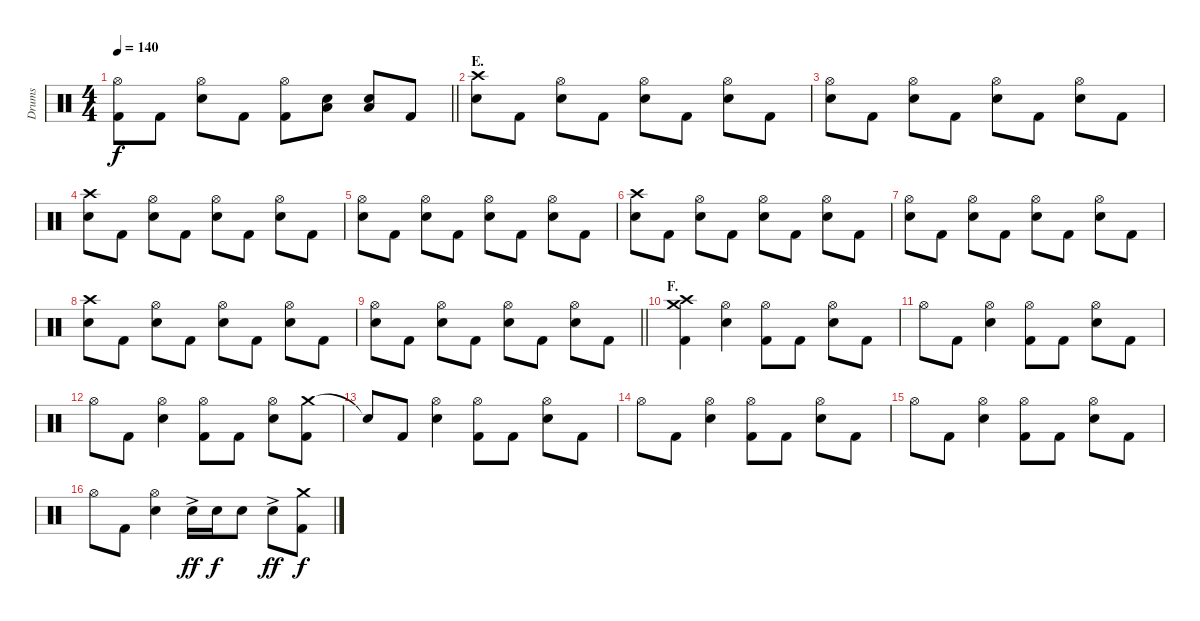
\track ("Drums" "Drums") {instrument percussion}
\staff {score}
\articulation defaults
\ts (4 4)
\tempo 140
\clef neutral
\barLineRight lightlight
\ks c
("Hi-Hat (open)" "Kick (hit) 2").8{dy f} "Kick (hit) 2".8 ("Hi-Hat (open)" "Electric Snare (hit)").8 "Kick (hit) 2".8 ("Hi-Hat (open)" "Kick (hit) 2").8 ("Electric Snare (hit)" "Low Floor Tom (hit)").8 ("Electric Snare (hit)" "Low Floor Tom (hit)").8 "Kick (hit) 2".8 |
\section ("" "E.")
("Crash high (hit)" "Electric Snare (hit)").8 "Kick (hit) 2".8 ("Hi-Hat (open)" "Electric Snare (hit)").8 "Kick (hit) 2".8 ("Hi-Hat (open)" "Electric Snare (hit)").8 "Kick (hit) 2".8 ("Hi-Hat (open)" "Electric Snare (hit)").8 "Kick (hit) 2".8 |
("Hi-Hat (open)" "Electric Snare (hit)").8 "Kick (hit) 2".8 ("Hi-Hat (open)" "Electric Snare (hit)").8 "Kick (hit) 2".8 ("Hi-Hat (open)" "Electric Snare (hit)").8 "Kick (hit) 2".8 ("Hi-Hat (open)" "Electric Snare (hit)").8 "Kick (hit) 2".8 |
("Crash high (hit)" "Electric Snare (hit)").8 "Kick (hit) 2".8 ("Hi-Hat (open)" "Electric Snare (hit)").8 "Kick (hit) 2".8 ("Hi-Hat (open)" "Electric Snare (hit)").8 "Kick (hit) 2".8 ("Hi-Hat (open)" "Electric Snare (hit)").8 "Kick (hit) 2".8 |
("Hi-Hat (open)" "Electric Snare (hit)").8 "Kick (hit) 2".8 ("Hi-Hat (open)" "Electric Snare (hit)").8 "Kick (hit) 2".8 ("Hi-Hat (open)" "Electric Snare (hit)").8 "Kick (hit) 2".8 ("Hi-Hat (open)" "Electric Snare (hit)").8 "Kick (hit) 2".8 |
("Crash high (hit)" "Electric Snare (hit)").8 "Kick (hit) 2".8 ("Hi-Hat (open)" "Electric Snare (hit)").8 "Kick (hit) 2".8 ("Hi-Hat (open)" "Electric Snare (hit)").8 "Kick (hit) 2".8 ("Hi-Hat (open)" "Electric Snare (hit)").8 "Kick (hit) 2".8 |
("Hi-Hat (open)" "Electric Snare (hit)").8 "Kick (hit) 2".8 ("Hi-Hat (open)" "Electric Snare (hit)").8 "Kick (hit) 2".8 ("Hi-Hat (open)" "Electric Snare (hit)").8 "Kick (hit) 2".8 ("Hi-Hat (open)" "Electric Snare (hit)").8 "Kick (hit) 2".8 |
("Crash high (hit)" "Electric Snare (hit)").8 "Kick (hit) 2".8 ("Hi-Hat (open)" "Electric Snare (hit)").8 "Kick (hit) 2".8 ("Hi-Hat (open)" "Electric Snare (hit)").8 "Kick (hit) 2".8 ("Hi-Hat (open)" "Electric Snare (hit)").8 "Kick (hit) 2".8 |
\barLineRight lightlight
("Hi-Hat (open)" "Electric Snare (hit)").8 "Kick (hit) 2".8 ("Hi-Hat (open)" "Electric Snare (hit)").8 "Kick (hit) 2".8 ("Hi-Hat (open)" "Electric Snare (hit)").8 "Kick (hit) 2".8 ("Hi-Hat (open)" "Electric Snare (hit)").8 "Kick (hit) 2".8 |
\section ("" "F.")
("Crash medium (hit)" "Crash high (hit)" "Kick (hit) 2").4 ("Hi-Hat (open)" "Electric Snare (hit)").4 ("Hi-Hat (open)" "Kick (hit) 2").8 "Kick (hit) 2".8 ("Hi-Hat (open)" "Electric Snare (hit)").8 "Kick (hit) 2".8 |
"Hi-Hat (open)".8 "Kick (hit) 2".8 ("Hi-Hat (open)" "Electric Snare (hit)").4 ("Hi-Hat (open)" "Kick (hit) 2").8 "Kick (hit) 2".8 ("Hi-Hat (open)" "Electric Snare (hit)").8 "Kick (hit) 2".8 |
"Hi-Hat (open)".8 "Kick (hit) 2".8 ("Hi-Hat (open)" "Electric Snare (hit)").4 ("Hi-Hat (open)" "Kick (hit) 2").8 "Kick (hit) 2".8 ("Hi-Hat (open)" "Electric Snare (hit)").8 ("Crash medium (hit)" "Kick (hit) 2").8 |
"Snare (hit)"{t}.8 "Kick (hit) 2".8 ("Hi-Hat (open)" "Electric Snare (hit)").4 ("Hi-Hat (open)" "Kick (hit) 2").8 "Kick (hit) 2".8 ("Hi-Hat (open)" "Electric Snare (hit)").8 "Kick (hit) 2".8 |
"Hi-Hat (open)".8 "Kick (hit) 2".8 ("Hi-Hat (open)" "Electric Snare (hit)").4 ("Hi-Hat (open)" "Kick (hit) 2").8 "Kick (hit) 2".8 ("Hi-Hat (open)" "Electric Snare (hit)").8 "Kick (hit) 2".8 |
"Hi-Hat (open)".8 "Kick (hit) 2".8 ("Hi-Hat (open)" "Electric Snare (hit)").4 ("Hi-Hat (open)" "Kick (hit) 2").8 "Kick (hit) 2".8 ("Hi-Hat (open)" "Electric Snare (hit)").8 "Kick (hit) 2".8 |
"Hi-Hat (open)".8 "Kick (hit) 2".8 ("Hi-Hat (open)" "Electric Snare (hit)").4 "Electric Snare (hit)"{ac}.16{dy ff} "Electric Snare (hit)".16{dy f} "Electric Snare (hit)".8 "Electric Snare (hit)"{ac}.8{dy ff} ("Crash medium (hit)" "Kick (hit) 2").8{dy f}
